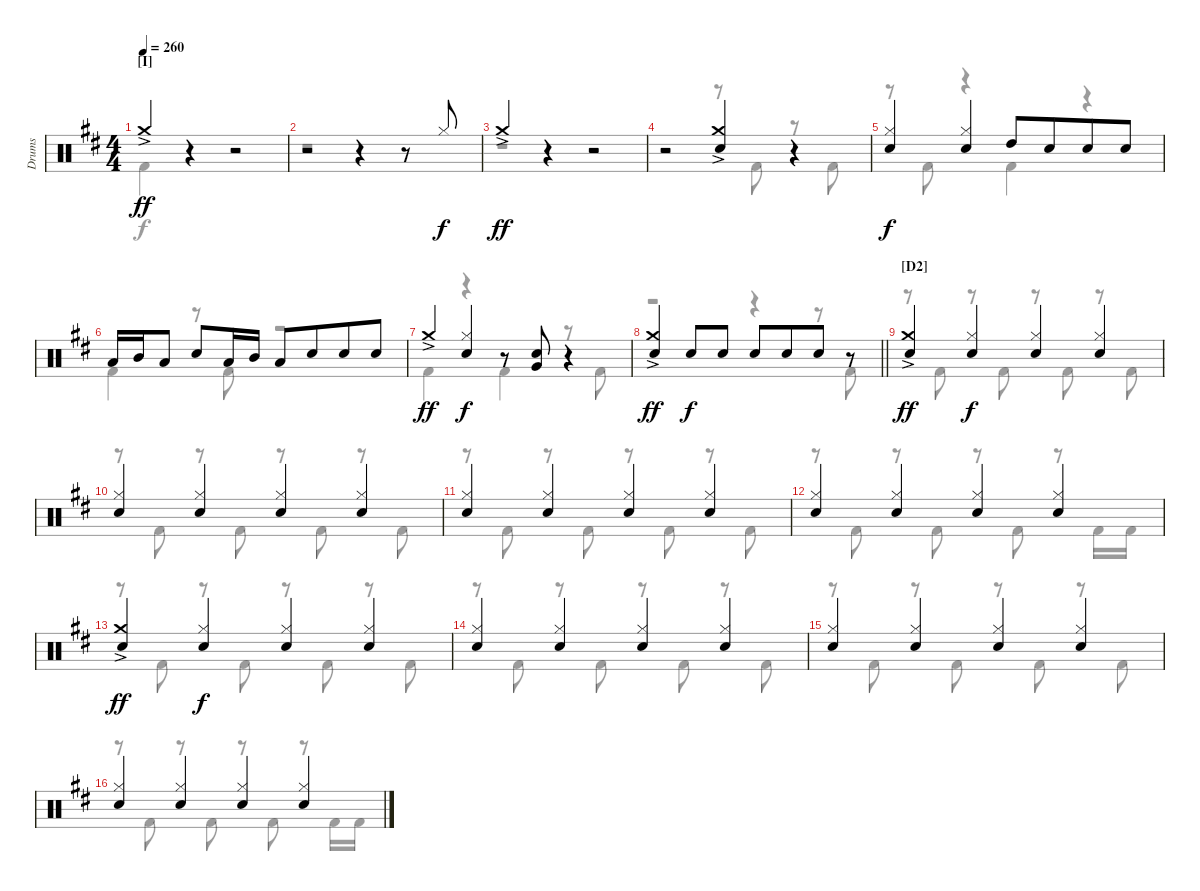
\track ("Drums" "Drums") {instrument percussion}
\staff {score}
\articulation defaults
\voice
\ts (4 4)
\section ("" "[I]")
\tempo 260
\clef neutral
\ks bminor "Crash medium (hit)"{ac}.4{dy ff}
r.4 r.2 |
r.2 r.4 r.8 "Hi-Hat (closed)".8{dy f} |
"Crash medium (hit)"{ac}.4{dy ff} r.4 r.2 |
r.2 ("Crash medium (hit)"{ac} "Snare (hit) 2").4 r.4 |
("Hi-Hat (closed)" "Snare (hit) 2").4{dy f} ("Hi-Hat (closed)" "Snare (hit) 2").4 "High Tom (hit)".8 "Snare (hit) 2".8{beam merge} "Snare (hit) 2".8 "Snare (hit) 2".8 |
"Low Tom (hit)".16 "Mid Tom (hit)".16 "Low Tom (hit)".8 "Snare (hit) 2".8 "Low Tom (hit)".16 "Mid Tom (hit)".16 "Low Tom (hit)".8 "Snare (hit) 2".8{beam merge} "Snare (hit) 2".8 "Snare (hit) 2".8 |
"Crash medium (hit)"{ac}.4{dy ff} ("Hi-Hat (closed)" "Snare (hit) 2").4{dy f} r.8 ("Snare (hit) 2" "Very Low Tom (hit)").8 r.4 |
\barLineRight lightlight
("Crash medium (hit)"{ac} "Snare (hit) 2").4{dy ff} "Snare (hit) 2".8{dy f} "Snare (hit) 2".8 "Snare (hit) 2".8 "Snare (hit) 2".8{beam merge} "Snare (hit) 2".8 r.8 |
\section ("" "[D2]")
("Crash medium (hit)"{ac} "Snare (hit) 2").4{dy ff} ("Hi-Hat (closed)" "Snare (hit) 2").4{dy f} ("Hi-Hat (closed)" "Snare (hit) 2").4 ("Hi-Hat (closed)" "Snare (hit) 2").4 |
("Hi-Hat (closed)" "Snare (hit) 2").4 ("Hi-Hat (closed)" "Snare (hit) 2").4 ("Hi-Hat (closed)" "Snare (hit) 2").4 ("Hi-Hat (closed)" "Snare (hit) 2").4 |
("Hi-Hat (closed)" "Snare (hit) 2").4 ("Hi-Hat (closed)" "Snare (hit) 2").4 ("Hi-Hat (closed)" "Snare (hit) 2").4 ("Hi-Hat (closed)" "Snare (hit) 2").4 |
("Hi-Hat (closed)" "Snare (hit) 2").4 ("Hi-Hat (closed)" "Snare (hit) 2").4 ("Hi-Hat (closed)" "Snare (hit) 2").4 ("Hi-Hat (closed)" "Snare (hit) 2").4 |
("Crash medium (hit)"{ac} "Snare (hit) 2").4{dy ff} ("Hi-Hat (closed)" "Snare (hit) 2").4{dy f} ("Hi-Hat (closed)" "Snare (hit) 2").4 ("Hi-Hat (closed)" "Snare (hit) 2").4 |
("Hi-Hat (closed)" "Snare (hit) 2").4 ("Hi-Hat (closed)" "Snare (hit) 2").4 ("Hi-Hat (closed)" "Snare (hit) 2").4 ("Hi-Hat (closed)" "Snare (hit) 2").4 |
("Hi-Hat (closed)" "Snare (hit) 2").4 ("Hi-Hat (closed)" "Snare (hit) 2").4 ("Hi-Hat (closed)" "Snare (hit) 2").4 ("Hi-Hat (closed)" "Snare (hit) 2").4 |
("Hi-Hat (closed)" "Snare (hit) 2").4 ("Hi-Hat (closed)" "Snare (hit) 2").4 ("Hi-Hat (closed)" "Snare (hit) 2").4 ("Hi-Hat (closed)" "Snare (hit) 2").4
\voice
\clef neutral
\ottava regular
\simile none
\ks bminor "Kick (hit) 2".4{dy f}
r.4 r.2 |
r.1 |
r.1 |
r.2 r.8 "Kick (hit) 2".8 r.8 "Kick (hit) 2".8 |
r.8 "Kick (hit) 2".8 r.4 "Kick (hit) 2".4 r.4 |
"Kick (hit) 2".4 r.8 "Kick (hit) 2".8 r.2 |
"Kick (hit) 2".4 r.4 "Kick (hit) 2".4 r.8 "Kick (hit) 2".8 |
\barLineRight lightlight
r.2 r.4 r.8 "Kick (hit) 2".8 |
r.8 "Kick (hit) 2".8 r.8 "Kick (hit) 2".8 r.8 "Kick (hit) 2".8 r.8 "Kick (hit) 2".8 |
r.8 "Kick (hit) 2".8 r.8 "Kick (hit) 2".8 r.8 "Kick (hit) 2".8 r.8 "Kick (hit) 2".8 |
r.8 "Kick (hit) 2".8 r.8 "Kick (hit) 2".8 r.8 "Kick (hit) 2".8 r.8 "Kick (hit) 2".8 |
r.8 "Kick (hit) 2".8 r.8 "Kick (hit) 2".8 r.8 "Kick (hit) 2".8 r.8 "Kick (hit) 2".16 "Kick (hit) 2".16 |
r.8 "Kick (hit) 2".8 r.8 "Kick (hit) 2".8 r.8 "Kick (hit) 2".8 r.8 "Kick (hit) 2".8 |
r.8 "Kick (hit) 2".8 r.8 "Kick (hit) 2".8 r.8 "Kick (hit) 2".8 r.8 "Kick (hit) 2".8 |
r.8 "Kick (hit) 2".8 r.8 "Kick (hit) 2".8 r.8 "Kick (hit) 2".8 r.8 "Kick (hit) 2".8 |
r.8 "Kick (hit) 2".8 r.8 "Kick (hit) 2".8 r.8 "Kick (hit) 2".8 r.8 "Kick (hit) 2".16 "Kick (hit) 2".16
